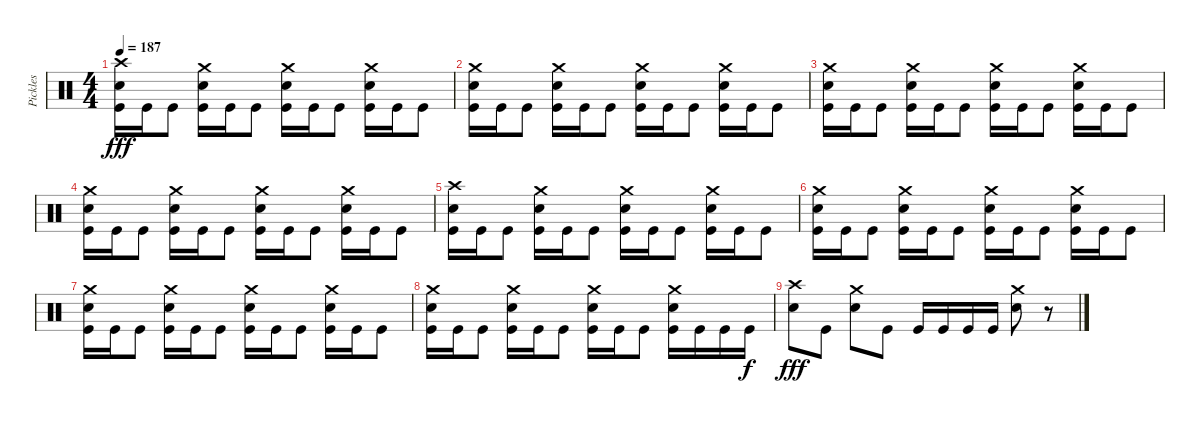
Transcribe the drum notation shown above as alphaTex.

\track ("Pickles" "Pickles") {instrument percussion}
\staff {score}
\articulation defaults
\ts (4 4)
\tempo 187
\clef neutral
\ks c
("Crash high (hit)" "Snare (hit) 2" "Kick (hit)").16{dy fff} "Kick (hit)".16 "Kick (hit)".8 ("Crash medium (hit)" "Snare (hit) 2" "Kick (hit)").16 "Kick (hit)".16 "Kick (hit)".8 ("Crash medium (hit)" "Snare (hit) 2" "Kick (hit)").16 "Kick (hit)".16 "Kick (hit)".8 ("Crash medium (hit)" "Snare (hit) 2" "Kick (hit)").16 "Kick (hit)".16 "Kick (hit)".8 |
("Crash medium (hit)" "Snare (hit) 2" "Kick (hit)").16 "Kick (hit)".16 "Kick (hit)".8 ("Crash medium (hit)" "Snare (hit) 2" "Kick (hit)").16 "Kick (hit)".16 "Kick (hit)".8 ("Crash medium (hit)" "Snare (hit) 2" "Kick (hit)").16 "Kick (hit)".16 "Kick (hit)".8 ("Crash medium (hit)" "Snare (hit) 2" "Kick (hit)").16 "Kick (hit)".16 "Kick (hit)".8 |
("Crash medium (hit)" "Snare (hit) 2" "Kick (hit)").16 "Kick (hit)".16 "Kick (hit)".8 ("Crash medium (hit)" "Snare (hit) 2" "Kick (hit)").16 "Kick (hit)".16 "Kick (hit)".8 ("Crash medium (hit)" "Snare (hit) 2" "Kick (hit)").16 "Kick (hit)".16 "Kick (hit)".8 ("Crash medium (hit)" "Snare (hit) 2" "Kick (hit)").16 "Kick (hit)".16 "Kick (hit)".8 |
("Crash medium (hit)" "Snare (hit) 2" "Kick (hit)").16 "Kick (hit)".16 "Kick (hit)".8 ("Crash medium (hit)" "Snare (hit) 2" "Kick (hit)").16 "Kick (hit)".16 "Kick (hit)".8 ("Crash medium (hit)" "Snare (hit) 2" "Kick (hit)").16 "Kick (hit)".16 "Kick (hit)".8 ("Crash medium (hit)" "Snare (hit) 2" "Kick (hit)").16 "Kick (hit)".16 "Kick (hit)".8 |
("Crash high (hit)" "Snare (hit) 2" "Kick (hit)").16 "Kick (hit)".16 "Kick (hit)".8 ("Crash medium (hit)" "Snare (hit) 2" "Kick (hit)").16 "Kick (hit)".16 "Kick (hit)".8 ("Crash medium (hit)" "Snare (hit) 2" "Kick (hit)").16 "Kick (hit)".16 "Kick (hit)".8 ("Crash medium (hit)" "Snare (hit) 2" "Kick (hit)").16 "Kick (hit)".16 "Kick (hit)".8 |
("Crash medium (hit)" "Snare (hit) 2" "Kick (hit)").16 "Kick (hit)".16 "Kick (hit)".8 ("Crash medium (hit)" "Snare (hit) 2" "Kick (hit)").16 "Kick (hit)".16 "Kick (hit)".8 ("Crash medium (hit)" "Snare (hit) 2" "Kick (hit)").16 "Kick (hit)".16 "Kick (hit)".8 ("Crash medium (hit)" "Snare (hit) 2" "Kick (hit)").16 "Kick (hit)".16 "Kick (hit)".8 |
("Crash medium (hit)" "Snare (hit) 2" "Kick (hit)").16 "Kick (hit)".16 "Kick (hit)".8 ("Crash medium (hit)" "Snare (hit) 2" "Kick (hit)").16 "Kick (hit)".16 "Kick (hit)".8 ("Crash medium (hit)" "Snare (hit) 2" "Kick (hit)").16 "Kick (hit)".16 "Kick (hit)".8 ("Crash medium (hit)" "Snare (hit) 2" "Kick (hit)").16 "Kick (hit)".16 "Kick (hit)".8 |
("Crash medium (hit)" "Snare (hit) 2" "Kick (hit)").16 "Kick (hit)".16 "Kick (hit)".8 ("Crash medium (hit)" "Snare (hit) 2" "Kick (hit)").16 "Kick (hit)".16 "Kick (hit)".8 ("Crash medium (hit)" "Snare (hit) 2" "Kick (hit)").16 "Kick (hit)".16 "Kick (hit)".8 ("Crash medium (hit)" "Snare (hit) 2" "Kick (hit)").16 "Kick (hit)".16 "Kick (hit)".16 "Kick (hit)".16{dy f} |
("Crash high (hit)" "Snare (hit) 2").8{dy fff} "Kick (hit)".8 ("Crash medium (hit)" "Snare (hit) 2").8 "Kick (hit)".8 "Kick (hit)".16 "Kick (hit)".16 "Kick (hit)".16 "Kick (hit)".16 ("Crash medium (hit)" "Snare (hit) 2").8 r.8
